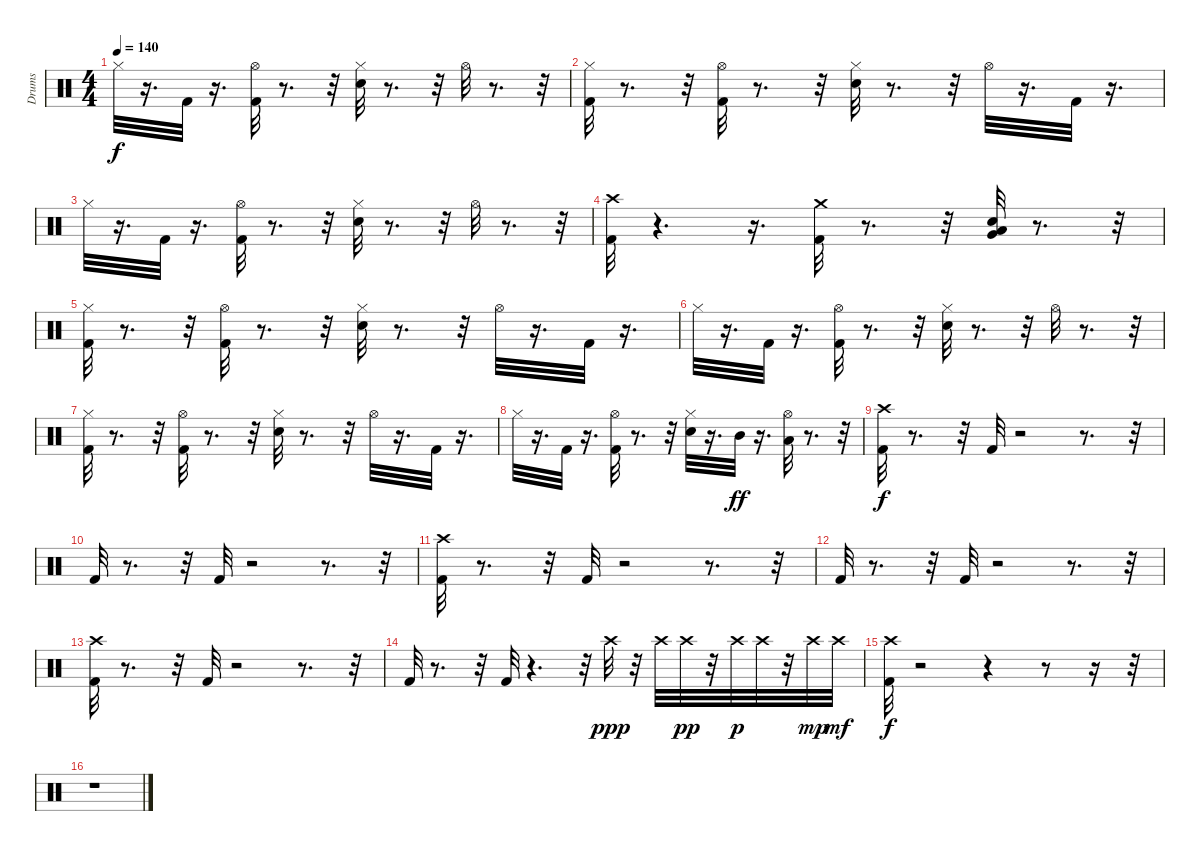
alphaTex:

\track ("Drums" "Drums") {instrument percussion}
\staff {score}
\articulation defaults
\ts (4 4)
\tempo 140
\clef neutral
\ks c "Hi-Hat (closed)".32{dy f}
r.16{d} "Kick (hit) 2".32 r.16{d} ("Kick (hit) 2" "Hi-Hat (open)").32 r.8{d} r.32 ("Electric Snare (hit)" "Hi-Hat (closed)").32 r.8{d} r.32 "Hi-Hat (open)".32 r.8{d} r.32 |
("Kick (hit) 2" "Hi-Hat (closed)").32 r.8{d} r.32 ("Kick (hit) 2" "Hi-Hat (open)").32 r.8{d} r.32 ("Electric Snare (hit)" "Hi-Hat (closed)").32 r.8{d} r.32 "Hi-Hat (open)".32 r.16{d} "Kick (hit) 2".32 r.16{d} |
"Hi-Hat (closed)".32 r.16{d} "Kick (hit) 2".32 r.16{d} ("Kick (hit) 2" "Hi-Hat (open)").32 r.8{d} r.32 ("Electric Snare (hit)" "Hi-Hat (closed)").32 r.8{d} r.32 "Hi-Hat (open)".32 r.8{d} r.32 |
("Kick (hit) 2" "Crash high (hit)").32 r.4{d} r.16{d} ("Kick (hit) 2" "Crash medium (hit)").32 r.8{d} r.32 ("Electric Snare (hit)" "Low Floor Tom (hit)" "Very Low Tom (hit)").32 r.8{d} r.32 |
("Kick (hit) 2" "Hi-Hat (closed)").32 r.8{d} r.32 ("Kick (hit) 2" "Hi-Hat (open)").32 r.8{d} r.32 ("Electric Snare (hit)" "Hi-Hat (closed)").32 r.8{d} r.32 "Hi-Hat (open)".32 r.16{d} "Kick (hit) 2".32 r.16{d} |
"Hi-Hat (closed)".32 r.16{d} "Kick (hit) 2".32 r.16{d} ("Kick (hit) 2" "Hi-Hat (open)").32 r.8{d} r.32 ("Electric Snare (hit)" "Hi-Hat (closed)").32 r.8{d} r.32 "Hi-Hat (open)".32 r.8{d} r.32 |
("Kick (hit) 2" "Hi-Hat (closed)").32 r.8{d} r.32 ("Kick (hit) 2" "Hi-Hat (open)").32 r.8{d} r.32 ("Electric Snare (hit)" "Hi-Hat (closed)").32 r.8{d} r.32 "Hi-Hat (open)".32 r.16{d} "Kick (hit) 2".32 r.16{d} |
"Hi-Hat (closed)".32 r.16{d} "Kick (hit) 2".32 r.16{d} ("Kick (hit) 2" "Hi-Hat (open)").32 r.8{d} r.32 ("Electric Snare (hit)" "Hi-Hat (closed)").32 r.16{d} "Mid Tom (hit)".32{dy ff} r.16{d} ("Low Tom (hit)" "Hi-Hat (open)").32 r.8{d} r.32 |
("Kick (hit) 2" "Crash high (hit)").32{dy f} r.8{d} r.32 "Kick (hit) 2".32 r.2 r.8{d} r.32 |
"Kick (hit) 2".32 r.8{d} r.32 "Kick (hit) 2".32 r.2 r.8{d} r.32 |
("Kick (hit) 2" "Crash high (hit)").32 r.8{d} r.32 "Kick (hit) 2".32 r.2 r.8{d} r.32 |
"Kick (hit) 2".32 r.8{d} r.32 "Kick (hit) 2".32 r.2 r.8{d} r.32 |
("Kick (hit) 2" "Crash high (hit)").32 r.8{d} r.32 "Kick (hit) 2".32 r.2 r.8{d} r.32 |
"Kick (hit) 2".32 r.8{d} r.32 "Kick (hit) 2".32 r.4{d} r.32 "Crash high (hit)".32{dy ppp} r.32 "Crash high (hit)".32 "Crash high (hit)".32{dy pp} r.32 "Crash high (hit)".32{dy p} "Crash high (hit)".32 r.32 "Crash high (hit)".32{dy mp} "Crash high (hit)".32{dy mf} |
("Kick (hit) 2" "Crash high (hit)").32{dy f} r.2 r.4 r.8 r.16 r.32 |
r.1
